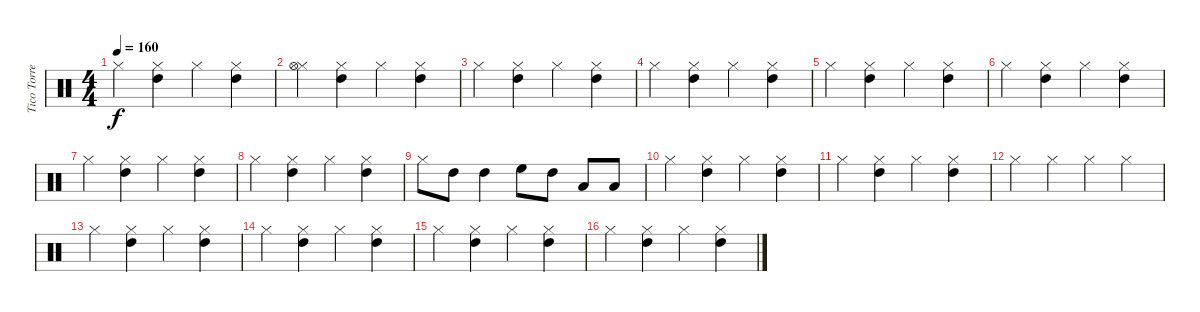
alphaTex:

\track ("Tico Torres" "Tico Torre") {instrument percussion}
\staff {score}
\articulation defaults
\ts (4 4)
\tempo 160
\clef neutral
\ks c "Hi-Hat (closed)".4{dy f}
("Hi-Hat (closed)" "High Tom (hit)").4 "Hi-Hat (closed)".4 ("Hi-Hat (closed)" "High Tom (hit)").4 |
("Hi-Hat (closed)" "Hi-Hat (open)").4 ("Hi-Hat (closed)" "High Tom (hit)").4 "Hi-Hat (closed)".4 ("Hi-Hat (closed)" "High Tom (hit)").4 |
"Hi-Hat (closed)".4 ("Hi-Hat (closed)" "High Tom (hit)").4 "Hi-Hat (closed)".4 ("Hi-Hat (closed)" "High Tom (hit)").4 |
"Hi-Hat (closed)".4 ("Hi-Hat (closed)" "High Tom (hit)").4 "Hi-Hat (closed)".4 ("Hi-Hat (closed)" "High Tom (hit)").4 |
"Hi-Hat (closed)".4 ("Hi-Hat (closed)" "High Tom (hit)").4 "Hi-Hat (closed)".4 ("Hi-Hat (closed)" "High Tom (hit)").4 |
"Hi-Hat (closed)".4 ("Hi-Hat (closed)" "High Tom (hit)").4 "Hi-Hat (closed)".4 ("Hi-Hat (closed)" "High Tom (hit)").4 |
"Hi-Hat (closed)".4 ("Hi-Hat (closed)" "High Tom (hit)").4 "Hi-Hat (closed)".4 ("Hi-Hat (closed)" "High Tom (hit)").4 |
"Hi-Hat (closed)".4 ("Hi-Hat (closed)" "High Tom (hit)").4 "Hi-Hat (closed)".4 ("Hi-Hat (closed)" "High Tom (hit)").4 |
"Hi-Hat (closed)".8 "High Tom (hit)".8 "High Tom (hit)".4 "High Floor Tom (hit)".8 "High Tom (hit)".8 "Low Tom (hit)".8 "Low Tom (hit)".8 |
"Hi-Hat (closed)".4 ("Hi-Hat (closed)" "High Tom (hit)").4 "Hi-Hat (closed)".4 ("Hi-Hat (closed)" "High Tom (hit)").4 |
"Hi-Hat (closed)".4 ("Hi-Hat (closed)" "High Tom (hit)").4 "Hi-Hat (closed)".4 ("Hi-Hat (closed)" "High Tom (hit)").4 |
"Hi-Hat (closed)".4 "Hi-Hat (closed)".4 "Hi-Hat (closed)".4 "Hi-Hat (closed)".4 |
"Hi-Hat (closed)".4 ("Hi-Hat (closed)" "High Tom (hit)").4 "Hi-Hat (closed)".4 ("Hi-Hat (closed)" "High Tom (hit)").4 |
"Hi-Hat (closed)".4 ("Hi-Hat (closed)" "High Tom (hit)").4 "Hi-Hat (closed)".4 ("Hi-Hat (closed)" "High Tom (hit)").4 |
"Hi-Hat (closed)".4 ("Hi-Hat (closed)" "High Tom (hit)").4 "Hi-Hat (closed)".4 ("Hi-Hat (closed)" "High Tom (hit)").4 |
"Hi-Hat (closed)".4 ("Hi-Hat (closed)" "High Tom (hit)").4 "Hi-Hat (closed)".4 ("Hi-Hat (closed)" "High Tom (hit)").4
